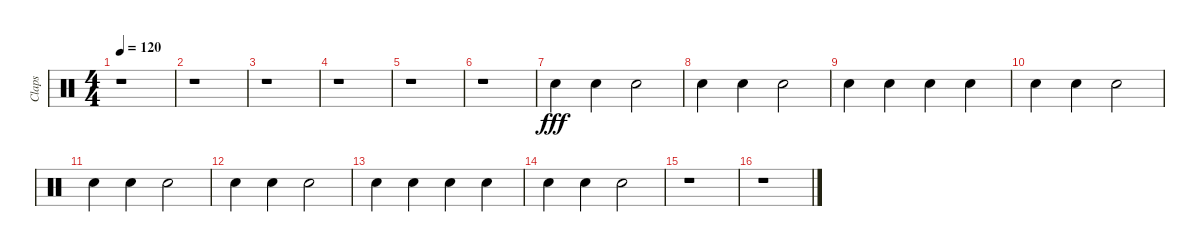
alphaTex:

\track ("Claps" "Claps") {instrument percussion}
\staff {score}
\articulation defaults
\ts (4 4)
\tempo 120
\clef neutral
\ks c
r.1{dy fff} |
r.1 |
r.1 |
r.1 |
r.1 |
r.1 |
"Hand Clap (hit)".4 "Hand Clap (hit)".4 "Hand Clap (hit)".2 |
"Hand Clap (hit)".4 "Hand Clap (hit)".4 "Hand Clap (hit)".2 |
"Hand Clap (hit)".4 "Hand Clap (hit)".4 "Hand Clap (hit)".4 "Hand Clap (hit)".4 |
"Hand Clap (hit)".4 "Hand Clap (hit)".4 "Hand Clap (hit)".2 |
"Hand Clap (hit)".4 "Hand Clap (hit)".4 "Hand Clap (hit)".2 |
"Hand Clap (hit)".4 "Hand Clap (hit)".4 "Hand Clap (hit)".2 |
"Hand Clap (hit)".4 "Hand Clap (hit)".4 "Hand Clap (hit)".4 "Hand Clap (hit)".4 |
"Hand Clap (hit)".4 "Hand Clap (hit)".4 "Hand Clap (hit)".2 |
r.1 |
r.1
